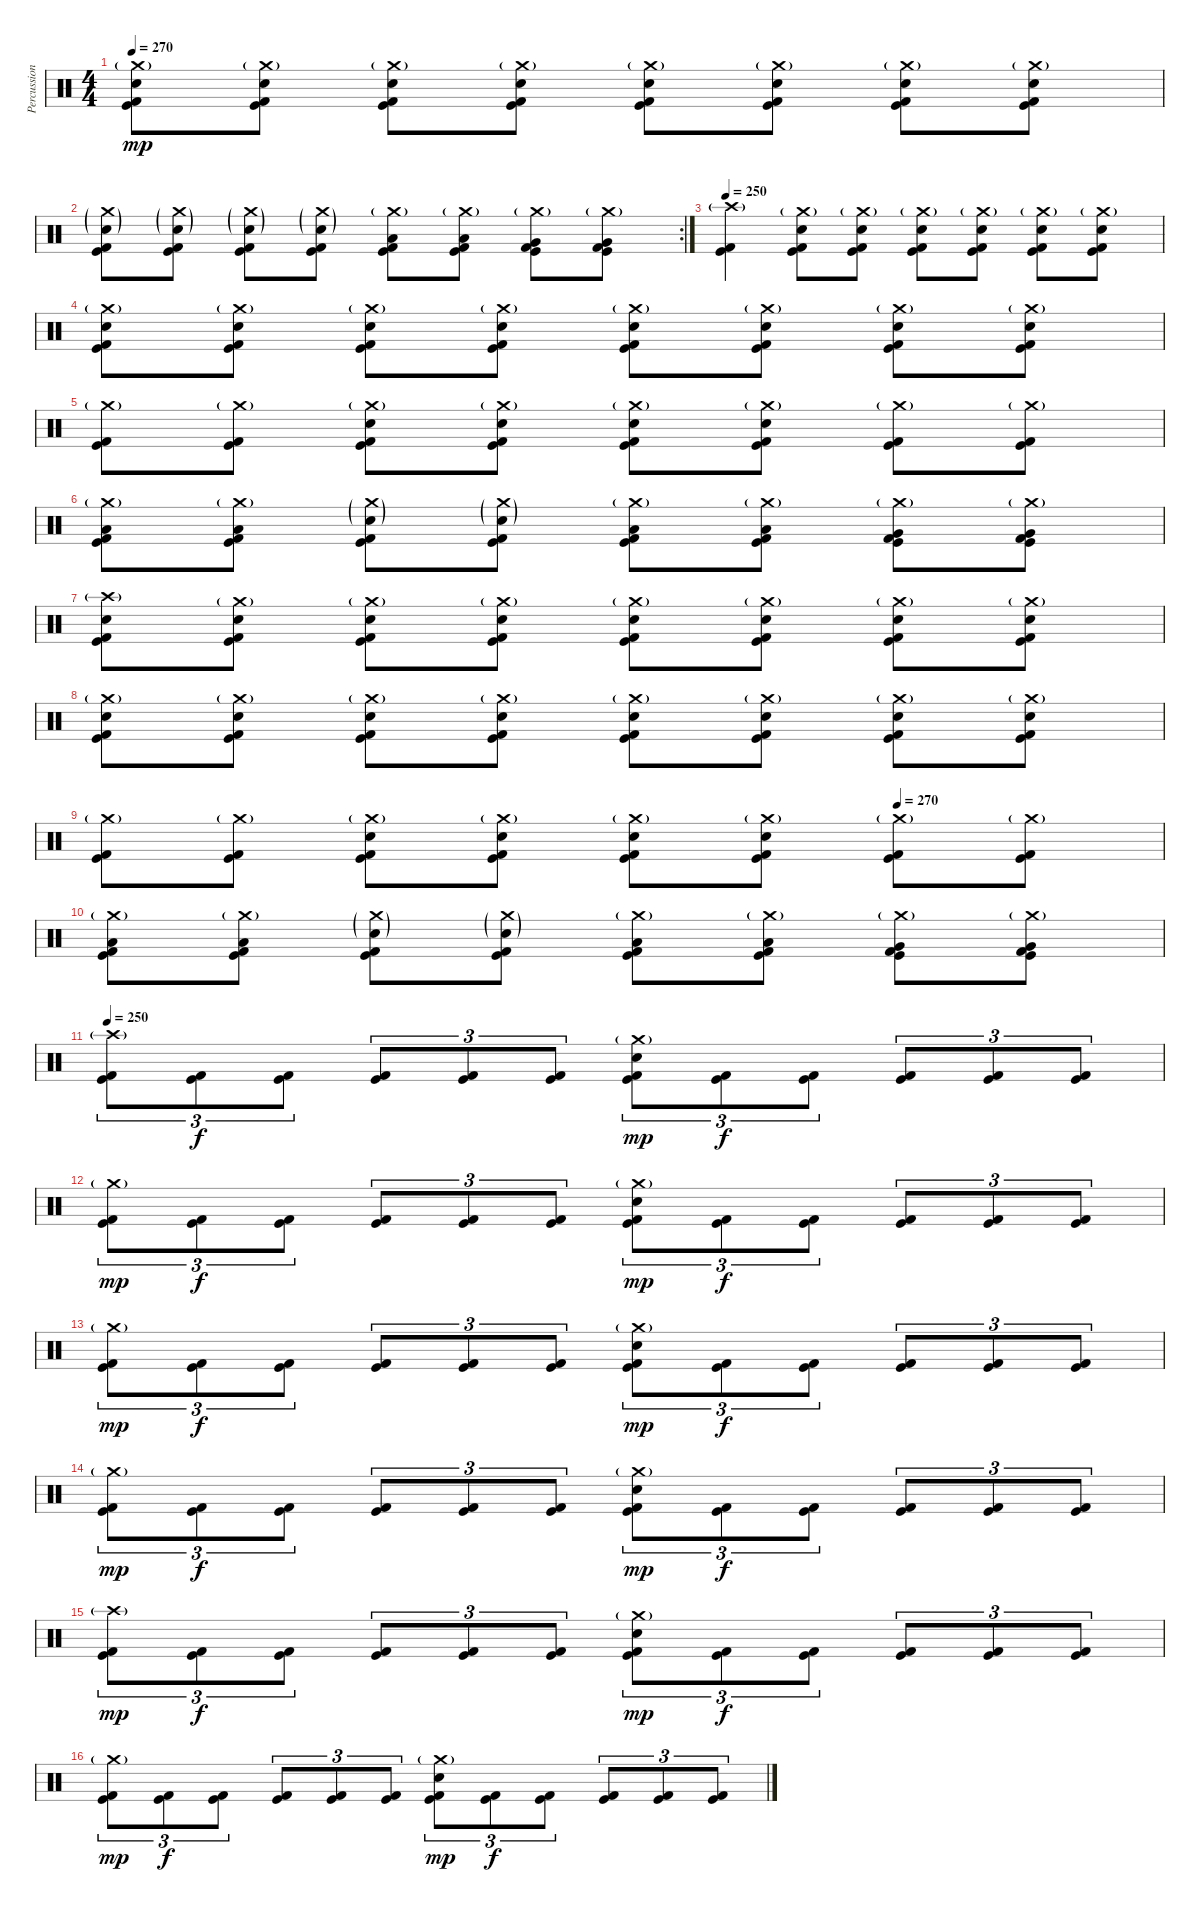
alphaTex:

\track ("Percussion" "Percussion") {instrument percussion}
\staff {score}
\articulation defaults
\ts (4 4)
\tempo 270
\clef neutral
\ks c
("Crash medium (hit)"{g} "Electric Snare (hit)" "Kick (hit)" "Kick (hit) 2").8{dy mp} ("Crash medium (hit)"{g} "Electric Snare (hit)" "Kick (hit)" "Kick (hit) 2").8 ("Crash medium (hit)"{g} "Electric Snare (hit)" "Kick (hit)" "Kick (hit) 2").8 ("Crash medium (hit)"{g} "Electric Snare (hit)" "Kick (hit)" "Kick (hit) 2").8 ("Crash medium (hit)"{g} "Electric Snare (hit)" "Kick (hit)" "Kick (hit) 2").8 ("Crash medium (hit)"{g} "Electric Snare (hit)" "Kick (hit)" "Kick (hit) 2").8 ("Crash medium (hit)"{g} "Electric Snare (hit)" "Kick (hit)" "Kick (hit) 2").8 ("Crash medium (hit)"{g} "Electric Snare (hit)" "Kick (hit)" "Kick (hit) 2").8 |
\rc 2
("Crash medium (hit)"{g} "Electric Snare (hit)"{g} "Kick (hit)" "Kick (hit) 2").8 ("Crash medium (hit)"{g} "Electric Snare (hit)"{g} "Kick (hit)" "Kick (hit) 2").8 ("Crash medium (hit)"{g} "Electric Snare (hit)"{g} "Kick (hit)" "Kick (hit) 2").8 ("Crash medium (hit)"{g} "Electric Snare (hit)"{g} "Kick (hit)" "Kick (hit) 2").8 ("Crash medium (hit)"{g} "Low Tom (hit)" "Kick (hit)" "Kick (hit) 2").8 ("Crash medium (hit)"{g} "Low Tom (hit)" "Kick (hit)" "Kick (hit) 2").8 ("Crash medium (hit)"{g} "Very Low Tom (hit)" "Kick (hit)" "Kick (hit) 2").8 ("Crash medium (hit)"{g} "Very Low Tom (hit)" "Kick (hit)" "Kick (hit) 2").8 |
\tempo 250
("Crash high (hit)"{g} "Kick (hit)" "Kick (hit) 2").4 ("Crash medium (hit)"{g} "Electric Snare (hit)" "Kick (hit)" "Kick (hit) 2").8 ("Crash medium (hit)"{g} "Electric Snare (hit)" "Kick (hit)" "Kick (hit) 2").8 ("Crash medium (hit)"{g} "Electric Snare (hit)" "Kick (hit)" "Kick (hit) 2").8 ("Crash medium (hit)"{g} "Electric Snare (hit)" "Kick (hit)" "Kick (hit) 2").8 ("Crash medium (hit)"{g} "Electric Snare (hit)" "Kick (hit)" "Kick (hit) 2").8 ("Crash medium (hit)"{g} "Electric Snare (hit)" "Kick (hit)" "Kick (hit) 2").8 |
("Crash medium (hit)"{g} "Electric Snare (hit)" "Kick (hit)" "Kick (hit) 2").8 ("Crash medium (hit)"{g} "Electric Snare (hit)" "Kick (hit)" "Kick (hit) 2").8 ("Crash medium (hit)"{g} "Electric Snare (hit)" "Kick (hit)" "Kick (hit) 2").8 ("Crash medium (hit)"{g} "Electric Snare (hit)" "Kick (hit)" "Kick (hit) 2").8 ("Crash medium (hit)"{g} "Electric Snare (hit)" "Kick (hit)" "Kick (hit) 2").8 ("Crash medium (hit)"{g} "Electric Snare (hit)" "Kick (hit)" "Kick (hit) 2").8 ("Crash medium (hit)"{g} "Electric Snare (hit)" "Kick (hit)" "Kick (hit) 2").8 ("Crash medium (hit)"{g} "Electric Snare (hit)" "Kick (hit)" "Kick (hit) 2").8 |
("Crash medium (hit)"{g} "Kick (hit)" "Kick (hit) 2").8 ("Crash medium (hit)"{g} "Kick (hit)" "Kick (hit) 2").8 ("Crash medium (hit)"{g} "Electric Snare (hit)" "Kick (hit)" "Kick (hit) 2").8 ("Crash medium (hit)"{g} "Electric Snare (hit)" "Kick (hit)" "Kick (hit) 2").8 ("Crash medium (hit)"{g} "Electric Snare (hit)" "Kick (hit)" "Kick (hit) 2").8 ("Crash medium (hit)"{g} "Electric Snare (hit)" "Kick (hit)" "Kick (hit) 2").8 ("Crash medium (hit)"{g} "Kick (hit)" "Kick (hit) 2").8 ("Crash medium (hit)"{g} "Kick (hit)" "Kick (hit) 2").8 |
("Crash medium (hit)"{g} "Low Tom (hit)" "Kick (hit)" "Kick (hit) 2").8 ("Crash medium (hit)"{g} "Low Tom (hit)" "Kick (hit)" "Kick (hit) 2").8 ("Crash medium (hit)"{g} "Electric Snare (hit)"{g} "Kick (hit)" "Kick (hit) 2").8 ("Crash medium (hit)"{g} "Electric Snare (hit)"{g} "Kick (hit)" "Kick (hit) 2").8 ("Crash medium (hit)"{g} "Low Tom (hit)" "Kick (hit)" "Kick (hit) 2").8 ("Crash medium (hit)"{g} "Low Tom (hit)" "Kick (hit)" "Kick (hit) 2").8 ("Crash medium (hit)"{g} "Very Low Tom (hit)" "Kick (hit)" "Kick (hit) 2").8 ("Crash medium (hit)"{g} "Very Low Tom (hit)" "Kick (hit)" "Kick (hit) 2").8 |
("Crash high (hit)"{g} "Electric Snare (hit)" "Kick (hit)" "Kick (hit) 2").8 ("Crash medium (hit)"{g} "Electric Snare (hit)" "Kick (hit)" "Kick (hit) 2").8 ("Crash medium (hit)"{g} "Electric Snare (hit)" "Kick (hit)" "Kick (hit) 2").8 ("Crash medium (hit)"{g} "Electric Snare (hit)" "Kick (hit)" "Kick (hit) 2").8 ("Crash medium (hit)"{g} "Electric Snare (hit)" "Kick (hit)" "Kick (hit) 2").8 ("Crash medium (hit)"{g} "Electric Snare (hit)" "Kick (hit)" "Kick (hit) 2").8 ("Crash medium (hit)"{g} "Electric Snare (hit)" "Kick (hit)" "Kick (hit) 2").8 ("Crash medium (hit)"{g} "Electric Snare (hit)" "Kick (hit)" "Kick (hit) 2").8 |
("Crash medium (hit)"{g} "Electric Snare (hit)" "Kick (hit)" "Kick (hit) 2").8 ("Crash medium (hit)"{g} "Electric Snare (hit)" "Kick (hit)" "Kick (hit) 2").8 ("Crash medium (hit)"{g} "Electric Snare (hit)" "Kick (hit)" "Kick (hit) 2").8 ("Crash medium (hit)"{g} "Electric Snare (hit)" "Kick (hit)" "Kick (hit) 2").8 ("Crash medium (hit)"{g} "Electric Snare (hit)" "Kick (hit)" "Kick (hit) 2").8 ("Crash medium (hit)"{g} "Electric Snare (hit)" "Kick (hit)" "Kick (hit) 2").8 ("Crash medium (hit)"{g} "Electric Snare (hit)" "Kick (hit)" "Kick (hit) 2").8 ("Crash medium (hit)"{g} "Electric Snare (hit)" "Kick (hit)" "Kick (hit) 2").8 |
\tempo (270 0.75)
("Crash medium (hit)"{g} "Kick (hit)" "Kick (hit) 2").8 ("Crash medium (hit)"{g} "Kick (hit)" "Kick (hit) 2").8 ("Crash medium (hit)"{g} "Electric Snare (hit)" "Kick (hit)" "Kick (hit) 2").8 ("Crash medium (hit)"{g} "Electric Snare (hit)" "Kick (hit)" "Kick (hit) 2").8 ("Crash medium (hit)"{g} "Electric Snare (hit)" "Kick (hit)" "Kick (hit) 2").8 ("Crash medium (hit)"{g} "Electric Snare (hit)" "Kick (hit)" "Kick (hit) 2").8 ("Crash medium (hit)"{g} "Kick (hit)" "Kick (hit) 2").8 ("Crash medium (hit)"{g} "Kick (hit)" "Kick (hit) 2").8 |
("Crash medium (hit)"{g} "Low Tom (hit)" "Kick (hit)" "Kick (hit) 2").8 ("Crash medium (hit)"{g} "Low Tom (hit)" "Kick (hit)" "Kick (hit) 2").8 ("Crash medium (hit)"{g} "Electric Snare (hit)"{g} "Kick (hit)" "Kick (hit) 2").8 ("Crash medium (hit)"{g} "Electric Snare (hit)"{g} "Kick (hit)" "Kick (hit) 2").8 ("Crash medium (hit)"{g} "Low Tom (hit)" "Kick (hit)" "Kick (hit) 2").8 ("Crash medium (hit)"{g} "Low Tom (hit)" "Kick (hit)" "Kick (hit) 2").8 ("Crash medium (hit)"{g} "Very Low Tom (hit)" "Kick (hit)" "Kick (hit) 2").8 ("Crash medium (hit)"{g} "Very Low Tom (hit)" "Kick (hit)" "Kick (hit) 2").8 |
\tempo 248
\tempo 250
("Crash high (hit)"{g} "Kick (hit)" "Kick (hit) 2").8{tu (3 2)} ("Kick (hit)" "Kick (hit) 2").8{tu (3 2) dy f} ("Kick (hit)" "Kick (hit) 2").8{tu (3 2)} ("Kick (hit)" "Kick (hit) 2").8{tu (3 2)} ("Kick (hit)" "Kick (hit) 2").8{tu (3 2)} ("Kick (hit)" "Kick (hit) 2").8{tu (3 2)} ("Crash medium (hit)"{g} "Electric Snare (hit)" "Kick (hit)" "Kick (hit) 2").8{tu (3 2) dy mp} ("Kick (hit)" "Kick (hit) 2").8{tu (3 2) dy f} ("Kick (hit)" "Kick (hit) 2").8{tu (3 2)} ("Kick (hit)" "Kick (hit) 2").8{tu (3 2)} ("Kick (hit)" "Kick (hit) 2").8{tu (3 2)} ("Kick (hit)" "Kick (hit) 2").8{tu (3 2)} |
("Crash medium (hit)"{g} "Kick (hit)" "Kick (hit) 2").8{tu (3 2) dy mp} ("Kick (hit)" "Kick (hit) 2").8{tu (3 2) dy f} ("Kick (hit)" "Kick (hit) 2").8{tu (3 2)} ("Kick (hit)" "Kick (hit) 2").8{tu (3 2)} ("Kick (hit)" "Kick (hit) 2").8{tu (3 2)} ("Kick (hit)" "Kick (hit) 2").8{tu (3 2)} ("Crash medium (hit)"{g} "Electric Snare (hit)" "Kick (hit)" "Kick (hit) 2").8{tu (3 2) dy mp} ("Kick (hit)" "Kick (hit) 2").8{tu (3 2) dy f} ("Kick (hit)" "Kick (hit) 2").8{tu (3 2)} ("Kick (hit)" "Kick (hit) 2").8{tu (3 2)} ("Kick (hit)" "Kick (hit) 2").8{tu (3 2)} ("Kick (hit)" "Kick (hit) 2").8{tu (3 2)} |
("Crash medium (hit)"{g} "Kick (hit)" "Kick (hit) 2").8{tu (3 2) dy mp} ("Kick (hit)" "Kick (hit) 2").8{tu (3 2) dy f} ("Kick (hit)" "Kick (hit) 2").8{tu (3 2)} ("Kick (hit)" "Kick (hit) 2").8{tu (3 2)} ("Kick (hit)" "Kick (hit) 2").8{tu (3 2)} ("Kick (hit)" "Kick (hit) 2").8{tu (3 2)} ("Crash medium (hit)"{g} "Electric Snare (hit)" "Kick (hit)" "Kick (hit) 2").8{tu (3 2) dy mp} ("Kick (hit)" "Kick (hit) 2").8{tu (3 2) dy f} ("Kick (hit)" "Kick (hit) 2").8{tu (3 2)} ("Kick (hit)" "Kick (hit) 2").8{tu (3 2)} ("Kick (hit)" "Kick (hit) 2").8{tu (3 2)} ("Kick (hit)" "Kick (hit) 2").8{tu (3 2)} |
("Crash medium (hit)"{g} "Kick (hit)" "Kick (hit) 2").8{tu (3 2) dy mp} ("Kick (hit)" "Kick (hit) 2").8{tu (3 2) dy f} ("Kick (hit)" "Kick (hit) 2").8{tu (3 2)} ("Kick (hit)" "Kick (hit) 2").8{tu (3 2)} ("Kick (hit)" "Kick (hit) 2").8{tu (3 2)} ("Kick (hit)" "Kick (hit) 2").8{tu (3 2)} ("Crash medium (hit)"{g} "Electric Snare (hit)" "Kick (hit)" "Kick (hit) 2").8{tu (3 2) dy mp} ("Kick (hit)" "Kick (hit) 2").8{tu (3 2) dy f} ("Kick (hit)" "Kick (hit) 2").8{tu (3 2)} ("Kick (hit)" "Kick (hit) 2").8{tu (3 2)} ("Kick (hit)" "Kick (hit) 2").8{tu (3 2)} ("Kick (hit)" "Kick (hit) 2").8{tu (3 2)} |
("Crash high (hit)"{g} "Kick (hit)" "Kick (hit) 2").8{tu (3 2) dy mp} ("Kick (hit)" "Kick (hit) 2").8{tu (3 2) dy f} ("Kick (hit)" "Kick (hit) 2").8{tu (3 2)} ("Kick (hit)" "Kick (hit) 2").8{tu (3 2)} ("Kick (hit)" "Kick (hit) 2").8{tu (3 2)} ("Kick (hit)" "Kick (hit) 2").8{tu (3 2)} ("Crash medium (hit)"{g} "Electric Snare (hit)" "Kick (hit)" "Kick (hit) 2").8{tu (3 2) dy mp} ("Kick (hit)" "Kick (hit) 2").8{tu (3 2) dy f} ("Kick (hit)" "Kick (hit) 2").8{tu (3 2)} ("Kick (hit)" "Kick (hit) 2").8{tu (3 2)} ("Kick (hit)" "Kick (hit) 2").8{tu (3 2)} ("Kick (hit)" "Kick (hit) 2").8{tu (3 2)} |
("Crash medium (hit)"{g} "Kick (hit)" "Kick (hit) 2").8{tu (3 2) dy mp} ("Kick (hit)" "Kick (hit) 2").8{tu (3 2) dy f} ("Kick (hit)" "Kick (hit) 2").8{tu (3 2)} ("Kick (hit)" "Kick (hit) 2").8{tu (3 2)} ("Kick (hit)" "Kick (hit) 2").8{tu (3 2)} ("Kick (hit)" "Kick (hit) 2").8{tu (3 2)} ("Crash medium (hit)"{g} "Electric Snare (hit)" "Kick (hit)" "Kick (hit) 2").8{tu (3 2) dy mp} ("Kick (hit)" "Kick (hit) 2").8{tu (3 2) dy f} ("Kick (hit)" "Kick (hit) 2").8{tu (3 2)} ("Kick (hit)" "Kick (hit) 2").8{tu (3 2)} ("Kick (hit)" "Kick (hit) 2").8{tu (3 2)} ("Kick (hit)" "Kick (hit) 2").8{tu (3 2)}
